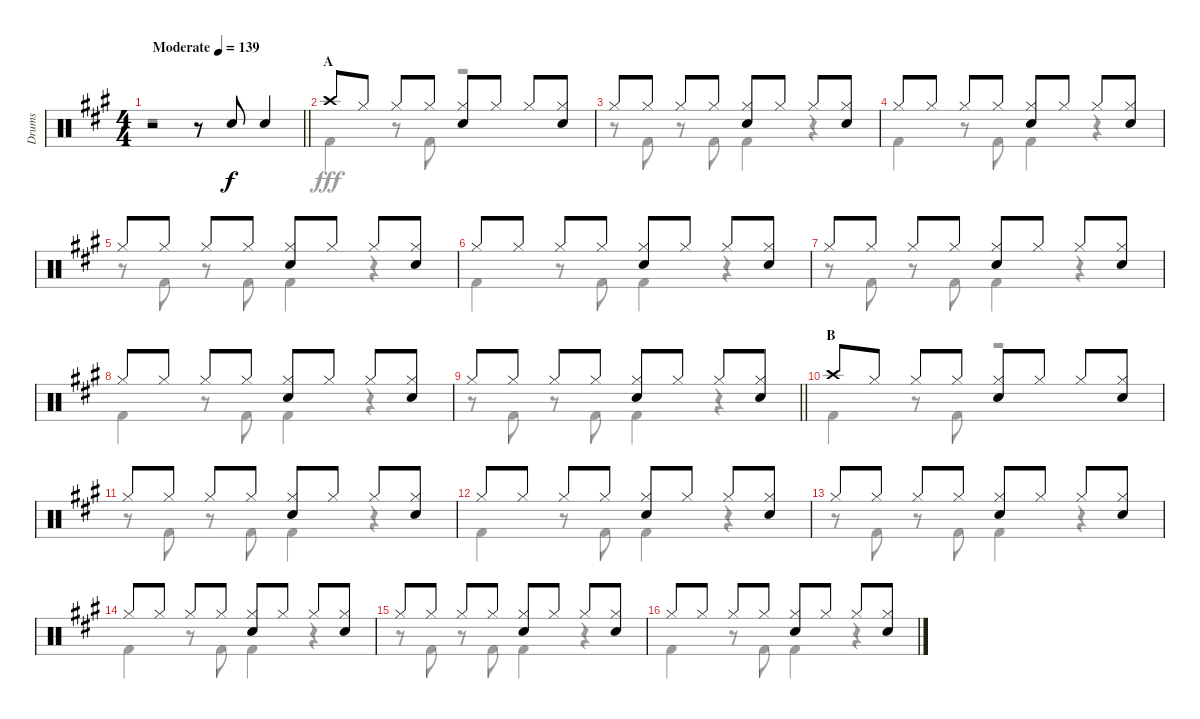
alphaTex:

\track ("Drums" "Drums") {instrument percussion}
\staff {score}
\articulation defaults
\voice
\ts (4 4)
\tempo (139 "Moderate")
\clef neutral
\barLineRight lightlight
\ks a
r.2{dy f} r.8 "Snare (hit) 2".8 "Snare (hit) 2".4 |
\section ("" "A")
"Crash high (hit)".8 "Hi-Hat (closed)".8 "Hi-Hat (closed)".8 "Hi-Hat (closed)".8 ("Hi-Hat (closed)" "Snare (hit) 2").8 "Hi-Hat (closed)".8 "Hi-Hat (closed)".8 ("Hi-Hat (closed)" "Snare (hit) 2").8 |
"Hi-Hat (closed)".8 "Hi-Hat (closed)".8 "Hi-Hat (closed)".8 "Hi-Hat (closed)".8 ("Hi-Hat (closed)" "Snare (hit) 2").8 "Hi-Hat (closed)".8 "Hi-Hat (closed)".8 ("Hi-Hat (closed)" "Snare (hit) 2").8 |
"Hi-Hat (closed)".8 "Hi-Hat (closed)".8 "Hi-Hat (closed)".8 "Hi-Hat (closed)".8 ("Hi-Hat (closed)" "Snare (hit) 2").8 "Hi-Hat (closed)".8 "Hi-Hat (closed)".8 ("Hi-Hat (closed)" "Snare (hit) 2").8 |
"Hi-Hat (closed)".8 "Hi-Hat (closed)".8 "Hi-Hat (closed)".8 "Hi-Hat (closed)".8 ("Hi-Hat (closed)" "Snare (hit) 2").8 "Hi-Hat (closed)".8 "Hi-Hat (closed)".8 ("Hi-Hat (closed)" "Snare (hit) 2").8 |
"Hi-Hat (closed)".8 "Hi-Hat (closed)".8 "Hi-Hat (closed)".8 "Hi-Hat (closed)".8 ("Hi-Hat (closed)" "Snare (hit) 2").8 "Hi-Hat (closed)".8 "Hi-Hat (closed)".8 ("Hi-Hat (closed)" "Snare (hit) 2").8 |
"Hi-Hat (closed)".8 "Hi-Hat (closed)".8 "Hi-Hat (closed)".8 "Hi-Hat (closed)".8 ("Hi-Hat (closed)" "Snare (hit) 2").8 "Hi-Hat (closed)".8 "Hi-Hat (closed)".8 ("Hi-Hat (closed)" "Snare (hit) 2").8 |
"Hi-Hat (closed)".8 "Hi-Hat (closed)".8 "Hi-Hat (closed)".8 "Hi-Hat (closed)".8 ("Hi-Hat (closed)" "Snare (hit) 2").8 "Hi-Hat (closed)".8 "Hi-Hat (closed)".8 ("Hi-Hat (closed)" "Snare (hit) 2").8 |
\barLineRight lightlight "Hi-Hat (closed)".8 "Hi-Hat (closed)".8 "Hi-Hat (closed)".8 "Hi-Hat (closed)".8
("Hi-Hat (closed)" "Snare (hit) 2").8 "Hi-Hat (closed)".8 "Hi-Hat (closed)".8 ("Hi-Hat (closed)" "Snare (hit) 2").8 |
\section ("" "B")
"Crash high (hit)".8 "Hi-Hat (closed)".8 "Hi-Hat (closed)".8 "Hi-Hat (closed)".8 ("Hi-Hat (closed)" "Snare (hit) 2").8 "Hi-Hat (closed)".8 "Hi-Hat (closed)".8 ("Hi-Hat (closed)" "Snare (hit) 2").8 |
"Hi-Hat (closed)".8 "Hi-Hat (closed)".8 "Hi-Hat (closed)".8 "Hi-Hat (closed)".8 ("Hi-Hat (closed)" "Snare (hit) 2").8 "Hi-Hat (closed)".8 "Hi-Hat (closed)".8 ("Hi-Hat (closed)" "Snare (hit) 2").8 |
"Hi-Hat (closed)".8 "Hi-Hat (closed)".8 "Hi-Hat (closed)".8 "Hi-Hat (closed)".8 ("Hi-Hat (closed)" "Snare (hit) 2").8 "Hi-Hat (closed)".8 "Hi-Hat (closed)".8 ("Hi-Hat (closed)" "Snare (hit) 2").8 |
"Hi-Hat (closed)".8 "Hi-Hat (closed)".8 "Hi-Hat (closed)".8 "Hi-Hat (closed)".8 ("Hi-Hat (closed)" "Snare (hit) 2").8 "Hi-Hat (closed)".8 "Hi-Hat (closed)".8 ("Hi-Hat (closed)" "Snare (hit) 2").8 |
"Hi-Hat (closed)".8 "Hi-Hat (closed)".8 "Hi-Hat (closed)".8 "Hi-Hat (closed)".8 ("Hi-Hat (closed)" "Snare (hit) 2").8 "Hi-Hat (closed)".8 "Hi-Hat (closed)".8 ("Hi-Hat (closed)" "Snare (hit) 2").8 |
"Hi-Hat (closed)".8 "Hi-Hat (closed)".8 "Hi-Hat (closed)".8 "Hi-Hat (closed)".8 ("Hi-Hat (closed)" "Snare (hit) 2").8 "Hi-Hat (closed)".8 "Hi-Hat (closed)".8 ("Hi-Hat (closed)" "Snare (hit) 2").8 |
"Hi-Hat (closed)".8 "Hi-Hat (closed)".8 "Hi-Hat (closed)".8 "Hi-Hat (closed)".8 ("Hi-Hat (closed)" "Snare (hit) 2").8 "Hi-Hat (closed)".8 "Hi-Hat (closed)".8 ("Hi-Hat (closed)" "Snare (hit) 2").8
\voice
\clef neutral
\ottava regular
\simile none
\barLineRight lightlight
\ks a
r.1{dy fff} |
"Kick (hit) 2".4 r.8 "Kick (hit) 2".8 r.2 |
r.8 "Kick (hit) 2".8 r.8 "Kick (hit) 2".8 "Kick (hit) 2".4 r.4 |
"Kick (hit) 2".4 r.8 "Kick (hit) 2".8 "Kick (hit) 2".4 r.4 |
r.8 "Kick (hit) 2".8 r.8 "Kick (hit) 2".8 "Kick (hit) 2".4 r.4 |
"Kick (hit) 2".4 r.8 "Kick (hit) 2".8 "Kick (hit) 2".4 r.4 |
r.8 "Kick (hit) 2".8 r.8 "Kick (hit) 2".8 "Kick (hit) 2".4 r.4 |
"Kick (hit) 2".4 r.8 "Kick (hit) 2".8 "Kick (hit) 2".4 r.4 |
\barLineRight lightlight
r.8 "Kick (hit) 2".8 r.8 "Kick (hit) 2".8 "Kick (hit) 2".4 r.4 |
"Kick (hit) 2".4 r.8 "Kick (hit) 2".8 r.2 |
r.8 "Kick (hit) 2".8 r.8 "Kick (hit) 2".8 "Kick (hit) 2".4 r.4 |
"Kick (hit) 2".4 r.8 "Kick (hit) 2".8 "Kick (hit) 2".4 r.4 |
r.8 "Kick (hit) 2".8 r.8 "Kick (hit) 2".8 "Kick (hit) 2".4 r.4 |
"Kick (hit) 2".4 r.8 "Kick (hit) 2".8 "Kick (hit) 2".4 r.4 |
r.8 "Kick (hit) 2".8 r.8 "Kick (hit) 2".8 "Kick (hit) 2".4 r.4 |
"Kick (hit) 2".4 r.8 "Kick (hit) 2".8 "Kick (hit) 2".4 r.4
